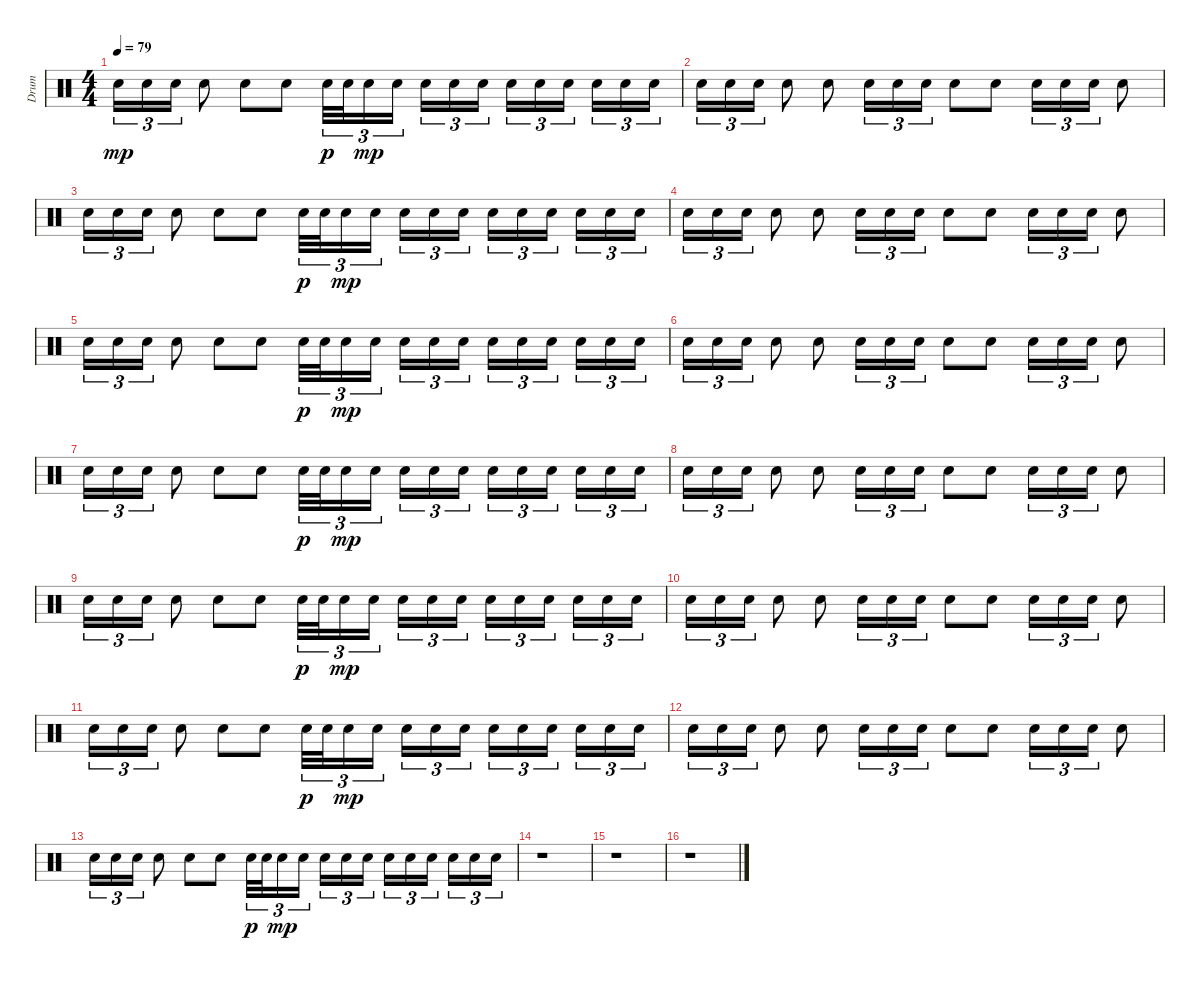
\track ("Drum" "Drum") {instrument percussion}
\staff {score}
\articulation defaults
\ts (4 4)
\tempo 79
\clef neutral
\ks c "Snare (hit) 2".16{tu (3 2) dy mp} "Snare (hit) 2".16{tu (3 2)} "Snare (hit) 2".16{tu (3 2)} "Snare (hit) 2".8 "Snare (hit) 2".8 "Snare (hit) 2".8 "Snare (hit) 2".32{tu (3 2) dy p} "Snare (hit) 2".32{tu (3 2)} "Snare (hit) 2".16{tu (3 2) dy mp} "Snare (hit) 2".16{tu (3 2) beam splitsecondary} "Snare (hit) 2".16{tu (3 2)} "Snare (hit) 2".16{tu (3 2)} "Snare (hit) 2".16{tu (3 2)} "Snare (hit) 2".16{tu (3 2)} "Snare (hit) 2".16{tu (3 2)} "Snare (hit) 2".16{tu (3 2) beam splitsecondary} "Snare (hit) 2".16{tu (3 2)} "Snare (hit) 2".16{tu (3 2)} "Snare (hit) 2".16{tu (3 2)}
|
"Snare (hit) 2".16{tu (3 2)} "Snare (hit) 2".16{tu (3 2)} "Snare (hit) 2".16{tu (3 2)} "Snare (hit) 2".8 "Snare (hit) 2".8 "Snare (hit) 2".16{tu (3 2)} "Snare (hit) 2".16{tu (3 2)} "Snare (hit) 2".16{tu (3 2)} "Snare (hit) 2".8 "Snare (hit) 2".8 "Snare (hit) 2".16{tu (3 2)} "Snare (hit) 2".16{tu (3 2)} "Snare (hit) 2".16{tu (3 2)} "Snare (hit) 2".8 |
"Snare (hit) 2".16{tu (3 2)} "Snare (hit) 2".16{tu (3 2)} "Snare (hit) 2".16{tu (3 2)} "Snare (hit) 2".8 "Snare (hit) 2".8 "Snare (hit) 2".8 "Snare (hit) 2".32{tu (3 2) dy p} "Snare (hit) 2".32{tu (3 2)} "Snare (hit) 2".16{tu (3 2) dy mp} "Snare (hit) 2".16{tu (3 2) beam splitsecondary} "Snare (hit) 2".16{tu (3 2)} "Snare (hit) 2".16{tu (3 2)} "Snare (hit) 2".16{tu (3 2)} "Snare (hit) 2".16{tu (3 2)} "Snare (hit) 2".16{tu (3 2)} "Snare (hit) 2".16{tu (3 2) beam splitsecondary} "Snare (hit) 2".16{tu (3 2)} "Snare (hit) 2".16{tu (3 2)} "Snare (hit) 2".16{tu (3 2)} |
"Snare (hit) 2".16{tu (3 2)} "Snare (hit) 2".16{tu (3 2)} "Snare (hit) 2".16{tu (3 2)} "Snare (hit) 2".8 "Snare (hit) 2".8 "Snare (hit) 2".16{tu (3 2)} "Snare (hit) 2".16{tu (3 2)} "Snare (hit) 2".16{tu (3 2)} "Snare (hit) 2".8 "Snare (hit) 2".8 "Snare (hit) 2".16{tu (3 2)} "Snare (hit) 2".16{tu (3 2)} "Snare (hit) 2".16{tu (3 2)} "Snare (hit) 2".8 |
"Snare (hit) 2".16{tu (3 2)} "Snare (hit) 2".16{tu (3 2)} "Snare (hit) 2".16{tu (3 2)} "Snare (hit) 2".8 "Snare (hit) 2".8 "Snare (hit) 2".8 "Snare (hit) 2".32{tu (3 2) dy p} "Snare (hit) 2".32{tu (3 2)} "Snare (hit) 2".16{tu (3 2) dy mp} "Snare (hit) 2".16{tu (3 2) beam splitsecondary} "Snare (hit) 2".16{tu (3 2)} "Snare (hit) 2".16{tu (3 2)} "Snare (hit) 2".16{tu (3 2)} "Snare (hit) 2".16{tu (3 2)} "Snare (hit) 2".16{tu (3 2)} "Snare (hit) 2".16{tu (3 2) beam splitsecondary} "Snare (hit) 2".16{tu (3 2)} "Snare (hit) 2".16{tu (3 2)} "Snare (hit) 2".16{tu (3 2)} |
"Snare (hit) 2".16{tu (3 2)} "Snare (hit) 2".16{tu (3 2)} "Snare (hit) 2".16{tu (3 2)} "Snare (hit) 2".8 "Snare (hit) 2".8 "Snare (hit) 2".16{tu (3 2)} "Snare (hit) 2".16{tu (3 2)} "Snare (hit) 2".16{tu (3 2)} "Snare (hit) 2".8 "Snare (hit) 2".8 "Snare (hit) 2".16{tu (3 2)} "Snare (hit) 2".16{tu (3 2)} "Snare (hit) 2".16{tu (3 2)} "Snare (hit) 2".8 |
"Snare (hit) 2".16{tu (3 2)} "Snare (hit) 2".16{tu (3 2)} "Snare (hit) 2".16{tu (3 2)} "Snare (hit) 2".8 "Snare (hit) 2".8 "Snare (hit) 2".8 "Snare (hit) 2".32{tu (3 2) dy p} "Snare (hit) 2".32{tu (3 2)} "Snare (hit) 2".16{tu (3 2) dy mp} "Snare (hit) 2".16{tu (3 2) beam splitsecondary} "Snare (hit) 2".16{tu (3 2)} "Snare (hit) 2".16{tu (3 2)} "Snare (hit) 2".16{tu (3 2)} "Snare (hit) 2".16{tu (3 2)} "Snare (hit) 2".16{tu (3 2)} "Snare (hit) 2".16{tu (3 2) beam splitsecondary} "Snare (hit) 2".16{tu (3 2)} "Snare (hit) 2".16{tu (3 2)} "Snare (hit) 2".16{tu (3 2)} |
"Snare (hit) 2".16{tu (3 2)} "Snare (hit) 2".16{tu (3 2)} "Snare (hit) 2".16{tu (3 2)} "Snare (hit) 2".8 "Snare (hit) 2".8 "Snare (hit) 2".16{tu (3 2)} "Snare (hit) 2".16{tu (3 2)} "Snare (hit) 2".16{tu (3 2)} "Snare (hit) 2".8 "Snare (hit) 2".8 "Snare (hit) 2".16{tu (3 2)} "Snare (hit) 2".16{tu (3 2)} "Snare (hit) 2".16{tu (3 2)} "Snare (hit) 2".8 |
"Snare (hit) 2".16{tu (3 2)} "Snare (hit) 2".16{tu (3 2)} "Snare (hit) 2".16{tu (3 2)} "Snare (hit) 2".8 "Snare (hit) 2".8 "Snare (hit) 2".8 "Snare (hit) 2".32{tu (3 2) dy p} "Snare (hit) 2".32{tu (3 2)} "Snare (hit) 2".16{tu (3 2) dy mp} "Snare (hit) 2".16{tu (3 2) beam splitsecondary} "Snare (hit) 2".16{tu (3 2)} "Snare (hit) 2".16{tu (3 2)} "Snare (hit) 2".16{tu (3 2)} "Snare (hit) 2".16{tu (3 2)} "Snare (hit) 2".16{tu (3 2)} "Snare (hit) 2".16{tu (3 2) beam splitsecondary} "Snare (hit) 2".16{tu (3 2)} "Snare (hit) 2".16{tu (3 2)} "Snare (hit) 2".16{tu (3 2)} |
"Snare (hit) 2".16{tu (3 2) volume 0} "Snare (hit) 2".16{tu (3 2)} "Snare (hit) 2".16{tu (3 2)} "Snare (hit) 2".8 "Snare (hit) 2".8 "Snare (hit) 2".16{tu (3 2)} "Snare (hit) 2".16{tu (3 2)} "Snare (hit) 2".16{tu (3 2)} "Snare (hit) 2".8 "Snare (hit) 2".8 "Snare (hit) 2".16{tu (3 2)} "Snare (hit) 2".16{tu (3 2)} "Snare (hit) 2".16{tu (3 2)} "Snare (hit) 2".8 |
"Snare (hit) 2".16{tu (3 2)} "Snare (hit) 2".16{tu (3 2)} "Snare (hit) 2".16{tu (3 2)} "Snare (hit) 2".8 "Snare (hit) 2".8 "Snare (hit) 2".8 "Snare (hit) 2".32{tu (3 2) dy p} "Snare (hit) 2".32{tu (3 2)} "Snare (hit) 2".16{tu (3 2) dy mp} "Snare (hit) 2".16{tu (3 2) beam splitsecondary} "Snare (hit) 2".16{tu (3 2)} "Snare (hit) 2".16{tu (3 2)} "Snare (hit) 2".16{tu (3 2)} "Snare (hit) 2".16{tu (3 2)} "Snare (hit) 2".16{tu (3 2)} "Snare (hit) 2".16{tu (3 2) beam splitsecondary} "Snare (hit) 2".16{tu (3 2)} "Snare (hit) 2".16{tu (3 2)} "Snare (hit) 2".16{tu (3 2)} |
"Snare (hit) 2".16{tu (3 2)} "Snare (hit) 2".16{tu (3 2)} "Snare (hit) 2".16{tu (3 2)} "Snare (hit) 2".8 "Snare (hit) 2".8 "Snare (hit) 2".16{tu (3 2)} "Snare (hit) 2".16{tu (3 2)} "Snare (hit) 2".16{tu (3 2)} "Snare (hit) 2".8 "Snare (hit) 2".8 "Snare (hit) 2".16{tu (3 2)} "Snare (hit) 2".16{tu (3 2)} "Snare (hit) 2".16{tu (3 2)} "Snare (hit) 2".8 |
"Snare (hit) 2".16{tu (3 2)} "Snare (hit) 2".16{tu (3 2)} "Snare (hit) 2".16{tu (3 2)} "Snare (hit) 2".8 "Snare (hit) 2".8 "Snare (hit) 2".8 "Snare (hit) 2".32{tu (3 2) dy p} "Snare (hit) 2".32{tu (3 2)} "Snare (hit) 2".16{tu (3 2) dy mp} "Snare (hit) 2".16{tu (3 2) beam splitsecondary} "Snare (hit) 2".16{tu (3 2)} "Snare (hit) 2".16{tu (3 2)} "Snare (hit) 2".16{tu (3 2)} "Snare (hit) 2".16{tu (3 2)} "Snare (hit) 2".16{tu (3 2)} "Snare (hit) 2".16{tu (3 2) beam splitsecondary} "Snare (hit) 2".16{tu (3 2)} "Snare (hit) 2".16{tu (3 2)} "Snare (hit) 2".16{tu (3 2)} |
r.1 |
r.1 |
r.1
